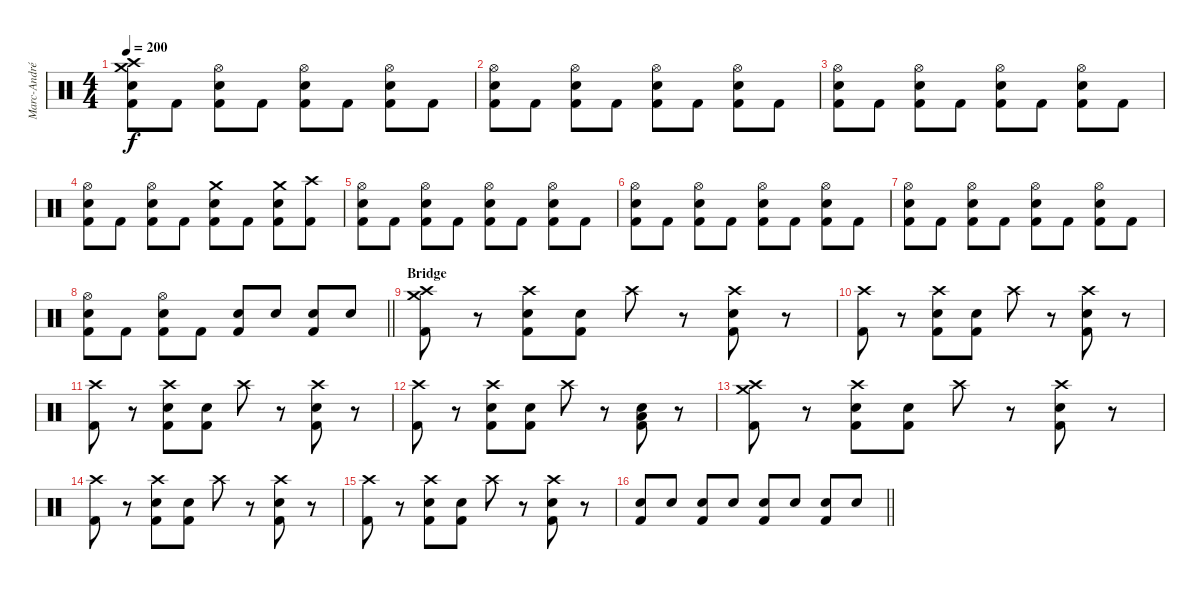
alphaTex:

\track ("Marc-André Barabé" "Marc-André") {instrument percussion}
\staff {score}
\articulation defaults
\ts (4 4)
\tempo 200
\clef neutral
\ks c
("Crash high (hit)" "Crash medium (hit)" "Electric Snare (hit)" "Kick (hit) 2"{tr (36 32)}).8{dy f} "Kick (hit) 2"{tr (36 32)}.8 ("Hi-Hat (open)" "Electric Snare (hit)" "Kick (hit) 2"{tr (36 32)}).8 "Kick (hit) 2"{tr (36 32)}.8 ("Hi-Hat (open)" "Electric Snare (hit)" "Kick (hit) 2"{tr (36 32)}).8 "Kick (hit) 2"{tr (36 32)}.8 ("Hi-Hat (open)" "Electric Snare (hit)" "Kick (hit) 2"{tr (36 32)}).8 "Kick (hit) 2"{tr (36 32)}.8 |
("Hi-Hat (open)" "Electric Snare (hit)" "Kick (hit) 2"{tr (36 32)}).8 "Kick (hit) 2"{tr (36 32)}.8 ("Hi-Hat (open)" "Electric Snare (hit)" "Kick (hit) 2"{tr (36 32)}).8 "Kick (hit) 2"{tr (36 32)}.8 ("Hi-Hat (open)" "Electric Snare (hit)" "Kick (hit) 2"{tr (36 32)}).8 "Kick (hit) 2"{tr (36 32)}.8 ("Hi-Hat (open)" "Electric Snare (hit)" "Kick (hit) 2"{tr (36 32)}).8 "Kick (hit) 2"{tr (36 32)}.8 |
("Hi-Hat (open)" "Electric Snare (hit)" "Kick (hit) 2"{tr (36 32)}).8 "Kick (hit) 2"{tr (36 32)}.8 ("Hi-Hat (open)" "Electric Snare (hit)" "Kick (hit) 2"{tr (36 32)}).8 "Kick (hit) 2"{tr (36 32)}.8 ("Hi-Hat (open)" "Electric Snare (hit)" "Kick (hit) 2"{tr (36 32)}).8 "Kick (hit) 2"{tr (36 32)}.8 ("Hi-Hat (open)" "Electric Snare (hit)" "Kick (hit) 2"{tr (36 32)}).8 "Kick (hit) 2"{tr (36 32)}.8 |
("Hi-Hat (open)" "Electric Snare (hit)" "Kick (hit) 2"{tr (36 32)}).8 "Kick (hit) 2"{tr (36 32)}.8 ("Hi-Hat (open)" "Electric Snare (hit)" "Kick (hit) 2"{tr (36 32)}).8 "Kick (hit) 2"{tr (36 32)}.8 ("Crash medium (hit)" "Electric Snare (hit)" "Kick (hit) 2"{tr (36 32)}).8 "Kick (hit) 2"{tr (36 32)}.8 ("Crash medium (hit)" "Electric Snare (hit)" "Kick (hit) 2"{tr (36 32)}).8 ("Crash high (hit)" "Kick (hit) 2"{tr (36 32)}).8 |
("Hi-Hat (open)" "Electric Snare (hit)" "Kick (hit) 2"{tr (36 32)}).8 "Kick (hit) 2"{tr (36 32)}.8 ("Hi-Hat (open)" "Electric Snare (hit)" "Kick (hit) 2"{tr (36 32)}).8 "Kick (hit) 2"{tr (36 32)}.8 ("Hi-Hat (open)" "Electric Snare (hit)" "Kick (hit) 2"{tr (36 32)}).8 "Kick (hit) 2"{tr (36 32)}.8 ("Hi-Hat (open)" "Electric Snare (hit)" "Kick (hit) 2"{tr (36 32)}).8 "Kick (hit) 2"{tr (36 32)}.8 |
("Hi-Hat (open)" "Electric Snare (hit)" "Kick (hit) 2"{tr (36 32)}).8 "Kick (hit) 2"{tr (36 32)}.8 ("Hi-Hat (open)" "Electric Snare (hit)" "Kick (hit) 2"{tr (36 32)}).8 "Kick (hit) 2"{tr (36 32)}.8 ("Hi-Hat (open)" "Electric Snare (hit)" "Kick (hit) 2"{tr (36 32)}).8 "Kick (hit) 2"{tr (36 32)}.8 ("Hi-Hat (open)" "Electric Snare (hit)" "Kick (hit) 2"{tr (36 32)}).8 "Kick (hit) 2"{tr (36 32)}.8 |
("Hi-Hat (open)" "Electric Snare (hit)" "Kick (hit) 2"{tr (36 32)}).8 "Kick (hit) 2"{tr (36 32)}.8 ("Hi-Hat (open)" "Electric Snare (hit)" "Kick (hit) 2"{tr (36 32)}).8 "Kick (hit) 2"{tr (36 32)}.8 ("Hi-Hat (open)" "Electric Snare (hit)" "Kick (hit) 2"{tr (36 32)}).8 "Kick (hit) 2"{tr (36 32)}.8 ("Hi-Hat (open)" "Electric Snare (hit)" "Kick (hit) 2"{tr (36 32)}).8 "Kick (hit) 2"{tr (36 32)}.8 |
\barLineRight lightlight
("Hi-Hat (open)" "Electric Snare (hit)" "Kick (hit) 2"{tr (36 32)}).8 "Kick (hit) 2"{tr (36 32)}.8 ("Hi-Hat (open)" "Electric Snare (hit)" "Kick (hit) 2"{tr (36 32)}).8 "Kick (hit) 2"{tr (36 32)}.8 ("Electric Snare (hit)"{tr (4 32)} "Kick (hit) 2").8 "Electric Snare (hit)"{tr (4 32)}.8 ("Electric Snare (hit)"{tr (4 32)} "Kick (hit) 2").8 "Electric Snare (hit)"{tr (4 32)}.8 |
\section ("" "Bridge")
("Crash high (hit)" "Crash medium (hit)" "Kick (hit) 2").8 r.8 ("Crash high (hit)" "Electric Snare (hit)" "Kick (hit) 2"{tr (36 32)}).8 ("Electric Snare (hit)" "Kick (hit) 2").8 "Crash high (hit)".8 r.8 ("Crash high (hit)" "Electric Snare (hit)" "Kick (hit) 2"{tr (4 32)}).8 r.8 |
("Crash high (hit)" "Kick (hit) 2").8 r.8 ("Crash high (hit)" "Electric Snare (hit)" "Kick (hit) 2"{tr (36 32)}).8 ("Electric Snare (hit)" "Kick (hit) 2").8 "Crash high (hit)".8 r.8 ("Crash high (hit)" "Electric Snare (hit)" "Kick (hit) 2"{tr (4 32)}).8 r.8 |
("Crash high (hit)" "Kick (hit) 2").8 r.8 ("Crash high (hit)" "Electric Snare (hit)" "Kick (hit) 2"{tr (36 32)}).8 ("Electric Snare (hit)" "Kick (hit) 2").8 "Crash high (hit)".8 r.8 ("Crash high (hit)" "Electric Snare (hit)" "Kick (hit) 2"{tr (4 32)}).8 r.8 |
("Crash high (hit)" "Kick (hit) 2").8 r.8 ("Crash high (hit)" "Electric Snare (hit)" "Kick (hit) 2"{tr (36 32)}).8 ("Electric Snare (hit)" "Kick (hit) 2").8 "Crash high (hit)".8 r.8 ("Electric Snare (hit)" "Low Floor Tom (hit)" "Kick (hit) 2"{tr (4 32)}).8 r.8 |
("Crash high (hit)" "Crash medium (hit)" "Kick (hit) 2").8 r.8 ("Crash high (hit)" "Electric Snare (hit)" "Kick (hit) 2"{tr (36 32)}).8 ("Electric Snare (hit)" "Kick (hit) 2").8 "Crash high (hit)".8 r.8 ("Crash high (hit)" "Electric Snare (hit)" "Kick (hit) 2"{tr (4 32)}).8 r.8 |
("Crash high (hit)" "Kick (hit) 2").8 r.8 ("Crash high (hit)" "Electric Snare (hit)" "Kick (hit) 2"{tr (36 32)}).8 ("Electric Snare (hit)" "Kick (hit) 2").8 "Crash high (hit)".8 r.8 ("Crash high (hit)" "Electric Snare (hit)" "Kick (hit) 2"{tr (4 32)}).8 r.8 |
("Crash high (hit)" "Kick (hit) 2").8 r.8 ("Crash high (hit)" "Electric Snare (hit)" "Kick (hit) 2"{tr (36 32)}).8 ("Electric Snare (hit)" "Kick (hit) 2").8 "Crash high (hit)".8 r.8 ("Crash high (hit)" "Electric Snare (hit)" "Kick (hit) 2"{tr (4 32)}).8 r.8 |
\barLineRight lightlight
("Electric Snare (hit)" "Kick (hit) 2").8 "Electric Snare (hit)".8 ("Electric Snare (hit)" "Kick (hit) 2").8 "Electric Snare (hit)".8 ("Electric Snare (hit)" "Kick (hit) 2").8 "Electric Snare (hit)".8 ("Electric Snare (hit)" "Kick (hit) 2").8 "Electric Snare (hit)".8
